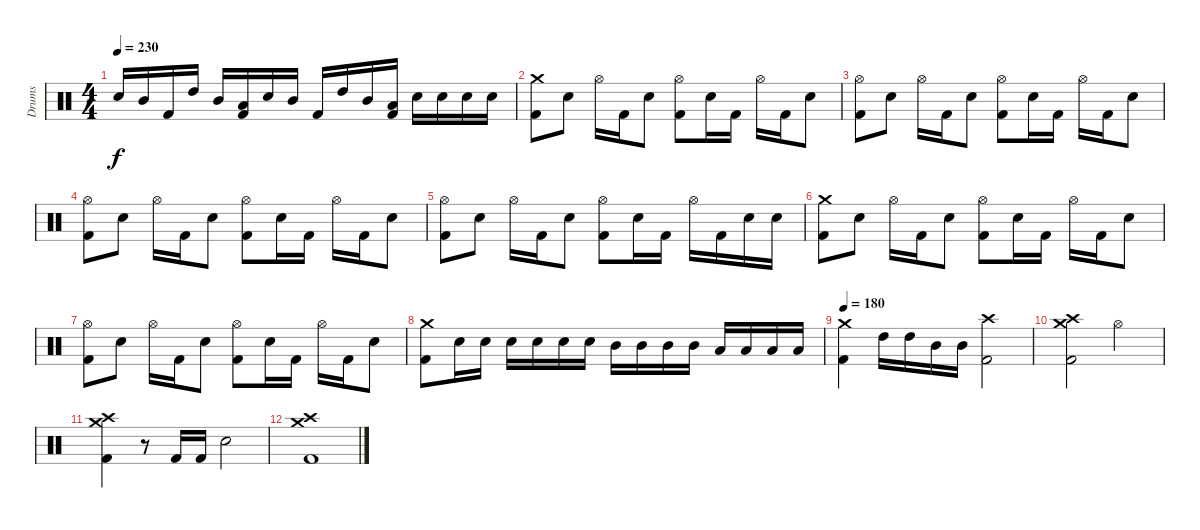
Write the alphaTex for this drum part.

\track ("Drums" "Drums") {instrument percussion}
\staff {score}
\articulation defaults
\ts (4 4)
\tempo 230
\clef neutral
\ks c "Electric Snare (hit)".16{dy f} "Mid Tom (hit)".16 "Kick (hit) 2".16 "High Tom (hit)".16 "Mid Tom (hit)".16
("Low Tom (hit)" "Kick (hit) 2").16 "Electric Snare (hit)".16 "Mid Tom (hit)".16 "Kick (hit) 2".16 "High Tom (hit)".16 "Mid Tom (hit)".16 ("Low Tom (hit)" "Kick (hit) 2").16 "Electric Snare (hit)".16 "Electric Snare (hit)".16 "Electric Snare (hit)".16 "Electric Snare (hit)".16 |
("Crash medium (hit)" "Kick (hit) 2").8 "Electric Snare (hit)".8 "Hi-Hat (open)".16 "Kick (hit) 2".16 "Electric Snare (hit)".8 ("Hi-Hat (open)" "Kick (hit) 2").8 "Electric Snare (hit)".16 "Kick (hit) 2".16 "Hi-Hat (open)".16 "Kick (hit) 2".16 "Electric Snare (hit)".8 |
("Hi-Hat (open)" "Kick (hit) 2").8 "Electric Snare (hit)".8 "Hi-Hat (open)".16 "Kick (hit) 2".16 "Electric Snare (hit)".8 ("Hi-Hat (open)" "Kick (hit) 2").8 "Electric Snare (hit)".16 "Kick (hit) 2".16 "Hi-Hat (open)".16 "Kick (hit) 2".16 "Electric Snare (hit)".8 |
("Hi-Hat (open)" "Kick (hit) 2").8 "Electric Snare (hit)".8 "Hi-Hat (open)".16 "Kick (hit) 2".16 "Electric Snare (hit)".8 ("Hi-Hat (open)" "Kick (hit) 2").8 "Electric Snare (hit)".16 "Kick (hit) 2".16 "Hi-Hat (open)".16 "Kick (hit) 2".16 "Electric Snare (hit)".8 |
("Hi-Hat (open)" "Kick (hit) 2").8 "Electric Snare (hit)".8 "Hi-Hat (open)".16 "Kick (hit) 2".16 "Electric Snare (hit)".8 ("Hi-Hat (open)" "Kick (hit) 2").8 "Electric Snare (hit)".16 "Kick (hit) 2".16 "Hi-Hat (open)".16 "Kick (hit) 2".16 "Electric Snare (hit)".16 "Electric Snare (hit)".16 |
("Crash medium (hit)" "Kick (hit) 2").8 "Electric Snare (hit)".8 "Hi-Hat (open)".16 "Kick (hit) 2".16 "Electric Snare (hit)".8 ("Hi-Hat (open)" "Kick (hit) 2").8 "Electric Snare (hit)".16 "Kick (hit) 2".16 "Hi-Hat (open)".16 "Kick (hit) 2".16 "Electric Snare (hit)".8 |
("Hi-Hat (open)" "Kick (hit) 2").8 "Electric Snare (hit)".8 "Hi-Hat (open)".16 "Kick (hit) 2".16 "Electric Snare (hit)".8 ("Hi-Hat (open)" "Kick (hit) 2").8 "Electric Snare (hit)".16 "Kick (hit) 2".16 "Hi-Hat (open)".16 "Kick (hit) 2".16 "Electric Snare (hit)".8 |
("Crash medium (hit)" "Kick (hit) 2").8 "Electric Snare (hit)".16 "Electric Snare (hit)".16 "Electric Snare (hit)".16 "Electric Snare (hit)".16 "Electric Snare (hit)".16 "Electric Snare (hit)".16 "Mid Tom (hit)".16 "Mid Tom (hit)".16 "Mid Tom (hit)".16 "Mid Tom (hit)".16 "Low Tom (hit)".16 "Low Tom (hit)".16 "Low Tom (hit)".16 "Low Tom (hit)".16 |
\tempo 180
("Crash medium (hit)" "Kick (hit) 2").4 "High Tom (hit)".16 "High Tom (hit)".16 "Mid Tom (hit)".16 "Mid Tom (hit)".16 ("Crash high (hit)" "Kick (hit) 2").2 |
("Crash high (hit)" "Crash medium (hit)" "Kick (hit) 2").2 "Hi-Hat (open)".2 |
("Crash high (hit)" "Crash medium (hit)" "Kick (hit) 2").4 r.8 "Kick (hit) 2".16 "Kick (hit) 2".16 "Electric Snare (hit)".2 |
("Crash high (hit)" "Crash medium (hit)" "Kick (hit) 2").1
